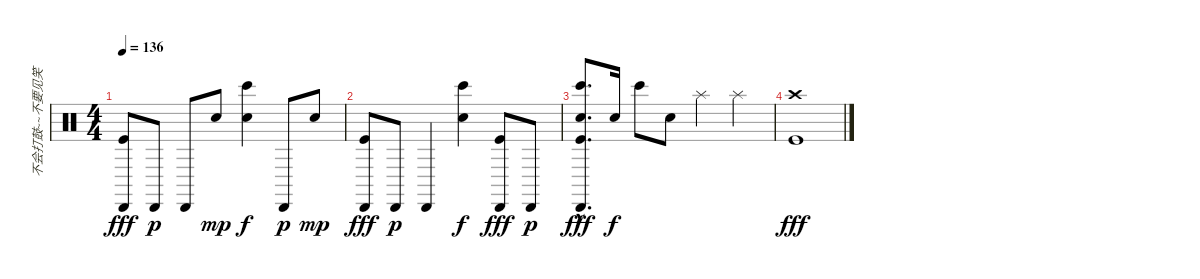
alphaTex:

\track ("不会打鼓~~不要见笑" "不会打鼓~~不要见笑") {instrument percussion}
\staff {score}
\articulation defaults
\ts (4 4)
\tempo 136
\clef neutral
\ks c
("Cabasa (hit)" "Kick (hit)").8{dy fff} "Cabasa (hit)".8{dy p} "Cabasa (hit)".8 "Metronome (bell)".8{dy mp} ("Bongo High (hit)" "Snare (hit) 2").4{dy f} "Cabasa (hit)".8{dy p} "Metronome (bell)".8{dy mp} |
("Cabasa (hit)" "Kick (hit)").8{dy fff} "Cabasa (hit)".8{dy p} "Cabasa (hit)".4 ("Bongo High (hit)" "Snare (hit) 2").4{dy f} ("Cabasa (hit)" "Kick (hit)").8{dy fff} "Cabasa (hit)".8{dy p} |
("Bongo High (hit)"{hac} "Snare (hit) 2"{hac} "Cabasa (hit)"{hac} "Kick (hit)"{hac}).8{d dy fff} "Snare (hit) 2".16{dy f} "Bongo High (hit)".8 "Snare (hit) 2".8 "Splash (hit)".4 "Splash (hit)".4 |
("Crash high (hit)" "Kick (hit)").1{dy fff}
